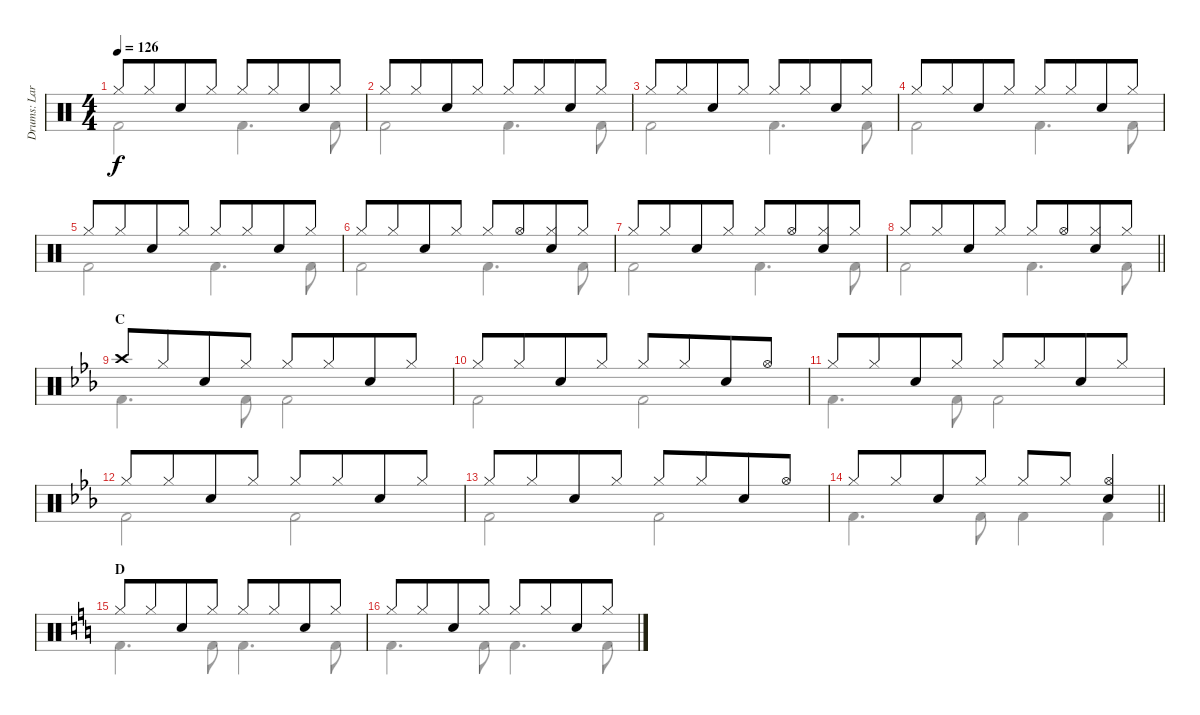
\track ("Drums: Larrie" "Drums: Lar") {instrument percussion}
\staff {score}
\articulation defaults
\voice
\ts (4 4)
\tempo 126
\clef neutral
\ks c "Hi-Hat (closed)".8{dy f} "Hi-Hat (closed)".8{beam merge} "Snare (hit) 2".8 "Hi-Hat (closed)".8 "Hi-Hat (closed)".8 "Hi-Hat (closed)".8{beam merge} "Snare (hit) 2".8 "Hi-Hat (closed)".8
|
"Hi-Hat (closed)".8 "Hi-Hat (closed)".8{beam merge} "Snare (hit) 2".8 "Hi-Hat (closed)".8 "Hi-Hat (closed)".8 "Hi-Hat (closed)".8{beam merge} "Snare (hit) 2".8 "Hi-Hat (closed)".8 |
"Hi-Hat (closed)".8 "Hi-Hat (closed)".8{beam merge} "Snare (hit) 2".8 "Hi-Hat (closed)".8 "Hi-Hat (closed)".8 "Hi-Hat (closed)".8{beam merge} "Snare (hit) 2".8 "Hi-Hat (closed)".8 |
"Hi-Hat (closed)".8 "Hi-Hat (closed)".8{beam merge} "Snare (hit) 2".8 "Hi-Hat (closed)".8 "Hi-Hat (closed)".8 "Hi-Hat (closed)".8{beam merge} "Snare (hit) 2".8 "Hi-Hat (closed)".8 |
"Hi-Hat (closed)".8 "Hi-Hat (closed)".8{beam merge} "Snare (hit) 2".8 "Hi-Hat (closed)".8 "Hi-Hat (closed)".8 "Hi-Hat (closed)".8{beam merge} "Snare (hit) 2".8 "Hi-Hat (closed)".8 |
"Hi-Hat (closed)".8 "Hi-Hat (closed)".8{beam merge} "Snare (hit) 2".8 "Hi-Hat (closed)".8 "Hi-Hat (closed)".8 "Hi-Hat (open)".8{beam merge} ("Hi-Hat (closed)" "Snare (hit) 2").8 "Hi-Hat (closed)".8 |
"Hi-Hat (closed)".8 "Hi-Hat (closed)".8{beam merge} "Snare (hit) 2".8 "Hi-Hat (closed)".8 "Hi-Hat (closed)".8 "Hi-Hat (open)".8{beam merge} ("Hi-Hat (closed)" "Snare (hit) 2").8 "Hi-Hat (closed)".8 |
\barLineRight lightlight "Hi-Hat (closed)".8 "Hi-Hat (closed)".8{beam merge} "Snare (hit) 2".8 "Hi-Hat (closed)".8 "Hi-Hat (closed)".8 "Hi-Hat (open)".8{beam merge}
("Hi-Hat (closed)" "Snare (hit) 2").8 "Hi-Hat (closed)".8 |
\section ("" "C")
\ks eb "Crash high (hit)".8 "Hi-Hat (closed)".8{beam merge} "Snare (hit) 2".8 "Hi-Hat (closed)".8 "Hi-Hat (closed)".8 "Hi-Hat (closed)".8{beam merge} "Snare (hit) 2".8 "Hi-Hat (closed)".8
|
"Hi-Hat (closed)".8 "Hi-Hat (closed)".8{beam merge} "Snare (hit) 2".8 "Hi-Hat (closed)".8 "Hi-Hat (closed)".8 "Hi-Hat (closed)".8{beam merge} "Snare (hit) 2".8 "Hi-Hat (open)".8 |
"Hi-Hat (closed)".8 "Hi-Hat (closed)".8{beam merge} "Snare (hit) 2".8 "Hi-Hat (closed)".8 "Hi-Hat (closed)".8 "Hi-Hat (closed)".8{beam merge} "Snare (hit) 2".8 "Hi-Hat (closed)".8 |
"Hi-Hat (closed)".8 "Hi-Hat (closed)".8{beam merge} "Snare (hit) 2".8 "Hi-Hat (closed)".8 "Hi-Hat (closed)".8 "Hi-Hat (closed)".8{beam merge} "Snare (hit) 2".8 "Hi-Hat (closed)".8 |
"Hi-Hat (closed)".8 "Hi-Hat (closed)".8{beam merge} "Snare (hit) 2".8 "Hi-Hat (closed)".8 "Hi-Hat (closed)".8 "Hi-Hat (closed)".8{beam merge} "Snare (hit) 2".8 "Hi-Hat (open)".8 |
\barLineRight lightlight "Hi-Hat (closed)".8 "Hi-Hat (closed)".8{beam merge} "Snare (hit) 2".8 "Hi-Hat (closed)".8 "Hi-Hat (closed)".8 "Hi-Hat (closed)".8{beam merge}
("Hi-Hat (open)" "Snare (hit) 2").4 |
\section ("" "D")
\ks c "Hi-Hat (closed)".8 "Hi-Hat (closed)".8{beam merge} "Snare (hit) 2".8 "Hi-Hat (closed)".8 "Hi-Hat (closed)".8 "Hi-Hat (closed)".8{beam merge} "Snare (hit) 2".8 "Hi-Hat (closed)".8
|
"Hi-Hat (closed)".8 "Hi-Hat (closed)".8{beam merge} "Snare (hit) 2".8 "Hi-Hat (closed)".8 "Hi-Hat (closed)".8 "Hi-Hat (closed)".8{beam merge} "Snare (hit) 2".8 "Hi-Hat (closed)".8
\voice
\clef neutral
\ottava regular
\simile none
\ks c "Kick (hit) 2".2{dy f} "Kick (hit) 2".4{d} "Kick (hit) 2".8
|
"Kick (hit) 2".2 "Kick (hit) 2".4{d} "Kick (hit) 2".8 |
"Kick (hit) 2".2 "Kick (hit) 2".4{d} "Kick (hit) 2".8 |
"Kick (hit) 2".2 "Kick (hit) 2".4{d} "Kick (hit) 2".8 |
"Kick (hit) 2".2 "Kick (hit) 2".4{d} "Kick (hit) 2".8 |
"Kick (hit) 2".2 "Kick (hit) 2".4{d} "Kick (hit) 2".8 |
"Kick (hit) 2".2 "Kick (hit) 2".4{d} "Kick (hit) 2".8 |
\barLineRight lightlight "Kick (hit) 2".2 "Kick (hit) 2".4{d} "Kick (hit) 2".8
|
\ks eb "Kick (hit) 2".4{d} "Kick (hit) 2".8 "Kick (hit) 2".2
|
"Kick (hit) 2".2 "Kick (hit) 2".2 |
"Kick (hit) 2".4{d} "Kick (hit) 2".8 "Kick (hit) 2".2 |
"Kick (hit) 2".2 "Kick (hit) 2".2 |
"Kick (hit) 2".2 "Kick (hit) 2".2 |
\barLineRight lightlight "Kick (hit) 2".4{d} "Kick (hit) 2".8 "Kick (hit) 2".4 "Kick (hit) 2".4
|
\ks c "Kick (hit) 2".4{d} "Kick (hit) 2".8 "Kick (hit) 2".4{d} "Kick (hit) 2".8
|
"Kick (hit) 2".4{d} "Kick (hit) 2".8 "Kick (hit) 2".4{d} "Kick (hit) 2".8
